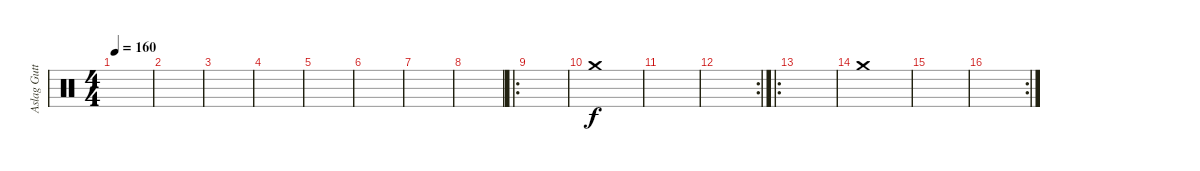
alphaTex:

\track ("Aslag Guttormsgaard (sledgehammer,stove)" "Aslag Gutt") {instrument percussion}
\staff {score}
\articulation defaults
\ts (4 4)
\tempo 160
\clef neutral
\ks c
|
|
|
|
|
|
|
|
\ro
|
"Crash medium (hit)".1 |
|
\rc 2
|
\ro
|
"Crash medium (hit)".1 |
|
\rc 2
